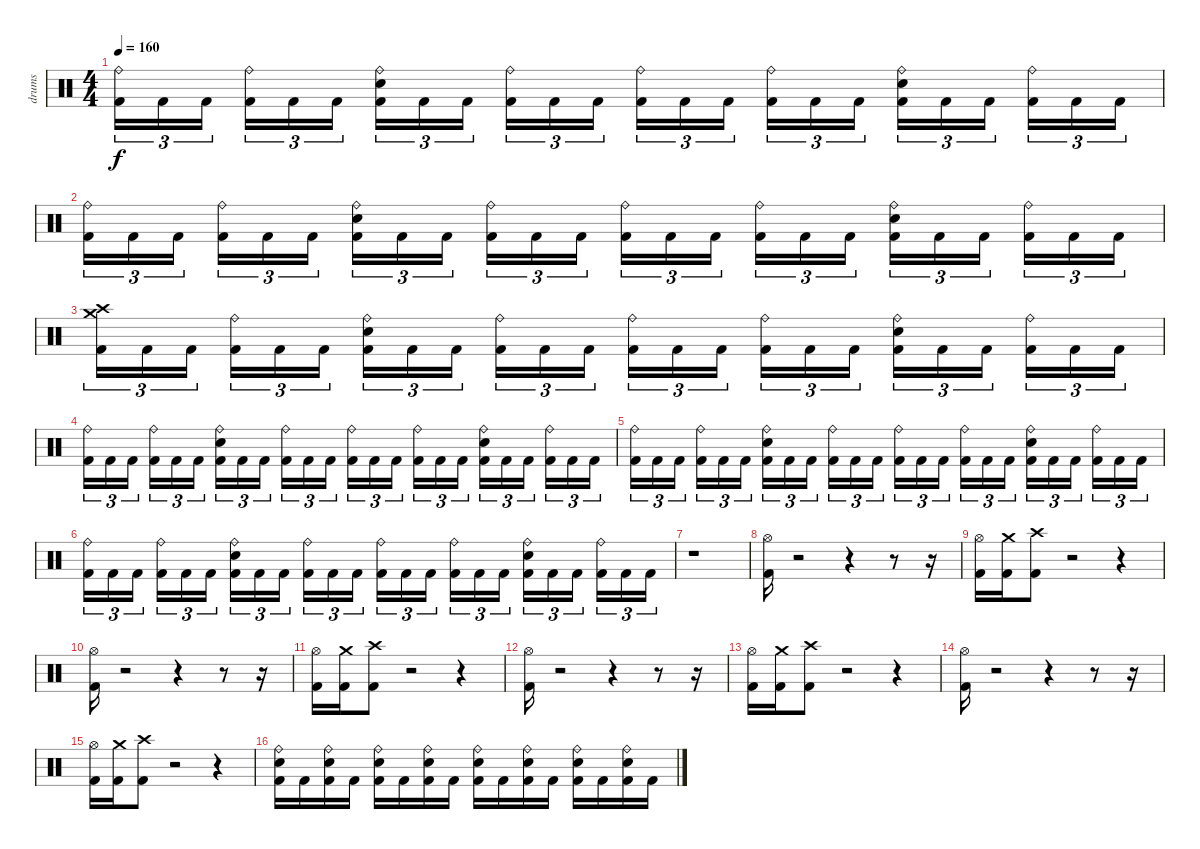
\track ("drums" "drums") {instrument percussion}
\staff {score}
\articulation defaults
\ts (4 4)
\tempo 160
\clef neutral
\ks c
("Ride (bell)" "Kick (hit) 2").16{tu (3 2) dy f} "Kick (hit) 2".16{tu (3 2)} "Kick (hit) 2".16{tu (3 2)} ("Ride (bell)" "Kick (hit) 2").16{tu (3 2)} "Kick (hit) 2".16{tu (3 2)} "Kick (hit) 2".16{tu (3 2)} ("Ride (bell)" "Snare (hit) 2" "Kick (hit) 2").16{tu (3 2)} "Kick (hit) 2".16{tu (3 2)} "Kick (hit) 2".16{tu (3 2)} ("Ride (bell)" "Kick (hit) 2").16{tu (3 2)} "Kick (hit) 2".16{tu (3 2)} "Kick (hit) 2".16{tu (3 2)} ("Ride (bell)" "Kick (hit) 2").16{tu (3 2)} "Kick (hit) 2".16{tu (3 2)} "Kick (hit) 2".16{tu (3 2)} ("Ride (bell)" "Kick (hit) 2").16{tu (3 2)} "Kick (hit) 2".16{tu (3 2)} "Kick (hit) 2".16{tu (3 2)} ("Ride (bell)" "Snare (hit) 2" "Kick (hit) 2").16{tu (3 2)} "Kick (hit) 2".16{tu (3 2)} "Kick (hit) 2".16{tu (3 2)} ("Ride (bell)" "Kick (hit) 2").16{tu (3 2)} "Kick (hit) 2".16{tu (3 2)} "Kick (hit) 2".16{tu (3 2)} |
("Ride (bell)" "Kick (hit) 2").16{tu (3 2)} "Kick (hit) 2".16{tu (3 2)} "Kick (hit) 2".16{tu (3 2)} ("Ride (bell)" "Kick (hit) 2").16{tu (3 2)} "Kick (hit) 2".16{tu (3 2)} "Kick (hit) 2".16{tu (3 2)} ("Ride (bell)" "Snare (hit) 2" "Kick (hit) 2").16{tu (3 2)} "Kick (hit) 2".16{tu (3 2)} "Kick (hit) 2".16{tu (3 2)} ("Ride (bell)" "Kick (hit) 2").16{tu (3 2)} "Kick (hit) 2".16{tu (3 2)} "Kick (hit) 2".16{tu (3 2)} ("Ride (bell)" "Kick (hit) 2").16{tu (3 2)} "Kick (hit) 2".16{tu (3 2)} "Kick (hit) 2".16{tu (3 2)} ("Ride (bell)" "Kick (hit) 2").16{tu (3 2)} "Kick (hit) 2".16{tu (3 2)} "Kick (hit) 2".16{tu (3 2)} ("Ride (bell)" "Snare (hit) 2" "Kick (hit) 2").16{tu (3 2)} "Kick (hit) 2".16{tu (3 2)} "Kick (hit) 2".16{tu (3 2)} ("Ride (bell)" "Kick (hit) 2").16{tu (3 2)} "Kick (hit) 2".16{tu (3 2)} "Kick (hit) 2".16{tu (3 2)} |
("Crash high (hit)" "Crash medium (hit)" "Kick (hit) 2").16{tu (3 2)} "Kick (hit) 2".16{tu (3 2)} "Kick (hit) 2".16{tu (3 2)} ("Ride (bell)" "Kick (hit) 2").16{tu (3 2)} "Kick (hit) 2".16{tu (3 2)} "Kick (hit) 2".16{tu (3 2)} ("Ride (bell)" "Snare (hit) 2" "Kick (hit) 2").16{tu (3 2)} "Kick (hit) 2".16{tu (3 2)} "Kick (hit) 2".16{tu (3 2)} ("Ride (bell)" "Kick (hit) 2").16{tu (3 2)} "Kick (hit) 2".16{tu (3 2)} "Kick (hit) 2".16{tu (3 2)} ("Ride (bell)" "Kick (hit) 2").16{tu (3 2)} "Kick (hit) 2".16{tu (3 2)} "Kick (hit) 2".16{tu (3 2)} ("Ride (bell)" "Kick (hit) 2").16{tu (3 2)} "Kick (hit) 2".16{tu (3 2)} "Kick (hit) 2".16{tu (3 2)} ("Ride (bell)" "Snare (hit) 2" "Kick (hit) 2").16{tu (3 2)} "Kick (hit) 2".16{tu (3 2)} "Kick (hit) 2".16{tu (3 2)} ("Ride (bell)" "Kick (hit) 2").16{tu (3 2)} "Kick (hit) 2".16{tu (3 2)} "Kick (hit) 2".16{tu (3 2)} |
("Ride (bell)" "Kick (hit) 2").16{tu (3 2)} "Kick (hit) 2".16{tu (3 2)} "Kick (hit) 2".16{tu (3 2)} ("Ride (bell)" "Kick (hit) 2").16{tu (3 2)} "Kick (hit) 2".16{tu (3 2)} "Kick (hit) 2".16{tu (3 2)} ("Ride (bell)" "Snare (hit) 2" "Kick (hit) 2").16{tu (3 2)} "Kick (hit) 2".16{tu (3 2)} "Kick (hit) 2".16{tu (3 2)} ("Ride (bell)" "Kick (hit) 2").16{tu (3 2)} "Kick (hit) 2".16{tu (3 2)} "Kick (hit) 2".16{tu (3 2)} ("Ride (bell)" "Kick (hit) 2").16{tu (3 2)} "Kick (hit) 2".16{tu (3 2)} "Kick (hit) 2".16{tu (3 2)} ("Ride (bell)" "Kick (hit) 2").16{tu (3 2)} "Kick (hit) 2".16{tu (3 2)} "Kick (hit) 2".16{tu (3 2)} ("Ride (bell)" "Snare (hit) 2" "Kick (hit) 2").16{tu (3 2)} "Kick (hit) 2".16{tu (3 2)} "Kick (hit) 2".16{tu (3 2)} ("Ride (bell)" "Kick (hit) 2").16{tu (3 2)} "Kick (hit) 2".16{tu (3 2)} "Kick (hit) 2".16{tu (3 2)} |
("Ride (bell)" "Kick (hit) 2").16{tu (3 2)} "Kick (hit) 2".16{tu (3 2)} "Kick (hit) 2".16{tu (3 2)} ("Ride (bell)" "Kick (hit) 2").16{tu (3 2)} "Kick (hit) 2".16{tu (3 2)} "Kick (hit) 2".16{tu (3 2)} ("Ride (bell)" "Snare (hit) 2" "Kick (hit) 2").16{tu (3 2)} "Kick (hit) 2".16{tu (3 2)} "Kick (hit) 2".16{tu (3 2)} ("Ride (bell)" "Kick (hit) 2").16{tu (3 2)} "Kick (hit) 2".16{tu (3 2)} "Kick (hit) 2".16{tu (3 2)} ("Ride (bell)" "Kick (hit) 2").16{tu (3 2)} "Kick (hit) 2".16{tu (3 2)} "Kick (hit) 2".16{tu (3 2)} ("Ride (bell)" "Kick (hit) 2").16{tu (3 2)} "Kick (hit) 2".16{tu (3 2)} "Kick (hit) 2".16{tu (3 2)} ("Ride (bell)" "Snare (hit) 2" "Kick (hit) 2").16{tu (3 2)} "Kick (hit) 2".16{tu (3 2)} "Kick (hit) 2".16{tu (3 2)} ("Ride (bell)" "Kick (hit) 2").16{tu (3 2)} "Kick (hit) 2".16{tu (3 2)} "Kick (hit) 2".16{tu (3 2)} |
("Ride (bell)" "Kick (hit) 2").16{tu (3 2)} "Kick (hit) 2".16{tu (3 2)} "Kick (hit) 2".16{tu (3 2)} ("Ride (bell)" "Kick (hit) 2").16{tu (3 2)} "Kick (hit) 2".16{tu (3 2)} "Kick (hit) 2".16{tu (3 2)} ("Ride (bell)" "Snare (hit) 2" "Kick (hit) 2").16{tu (3 2)} "Kick (hit) 2".16{tu (3 2)} "Kick (hit) 2".16{tu (3 2)} ("Ride (bell)" "Kick (hit) 2").16{tu (3 2)} "Kick (hit) 2".16{tu (3 2)} "Kick (hit) 2".16{tu (3 2)} ("Ride (bell)" "Kick (hit) 2").16{tu (3 2)} "Kick (hit) 2".16{tu (3 2)} "Kick (hit) 2".16{tu (3 2)} ("Ride (bell)" "Kick (hit) 2").16{tu (3 2)} "Kick (hit) 2".16{tu (3 2)} "Kick (hit) 2".16{tu (3 2)} ("Ride (bell)" "Snare (hit) 2" "Kick (hit) 2").16{tu (3 2)} "Kick (hit) 2".16{tu (3 2)} "Kick (hit) 2".16{tu (3 2)} ("Ride (bell)" "Kick (hit) 2").16{tu (3 2)} "Kick (hit) 2".16{tu (3 2)} "Kick (hit) 2".16{tu (3 2)} |
r.1 |
("Hi-Hat (open)" "Kick (hit) 2").16 r.2 r.4 r.8 r.16 |
("Hi-Hat (open)" "Kick (hit) 2").16 ("Crash medium (hit)" "Kick (hit) 2").16 ("Crash high (hit)" "Kick (hit) 2").8 r.2 r.4 |
("Hi-Hat (open)" "Kick (hit) 2").16 r.2 r.4 r.8 r.16 |
("Hi-Hat (open)" "Kick (hit) 2").16 ("Crash medium (hit)" "Kick (hit) 2").16 ("Crash high (hit)" "Kick (hit) 2").8 r.2 r.4 |
("Hi-Hat (open)" "Kick (hit) 2").16 r.2 r.4 r.8 r.16 |
("Hi-Hat (open)" "Kick (hit) 2").16 ("Crash medium (hit)" "Kick (hit) 2").16 ("Crash high (hit)" "Kick (hit) 2").8 r.2 r.4 |
("Hi-Hat (open)" "Kick (hit) 2").16 r.2 r.4 r.8 r.16 |
("Hi-Hat (open)" "Kick (hit) 2").16 ("Crash medium (hit)" "Kick (hit) 2").16 ("Crash high (hit)" "Kick (hit) 2").8 r.2 r.4 |
("Ride (bell)" "Snare (hit) 2" "Kick (hit) 2").16 "Kick (hit) 2".16 ("Ride (bell)" "Snare (hit) 2" "Kick (hit) 2").16 "Kick (hit) 2".16 ("Ride (bell)" "Snare (hit) 2" "Kick (hit) 2").16 "Kick (hit) 2".16 ("Ride (bell)" "Snare (hit) 2" "Kick (hit) 2").16 "Kick (hit) 2".16 ("Ride (bell)" "Snare (hit) 2" "Kick (hit) 2").16 "Kick (hit) 2".16 ("Ride (bell)" "Snare (hit) 2" "Kick (hit) 2").16 "Kick (hit) 2".16 ("Ride (bell)" "Snare (hit) 2" "Kick (hit) 2").16 "Kick (hit) 2".16 ("Ride (bell)" "Snare (hit) 2" "Kick (hit) 2").16 "Kick (hit) 2".16
